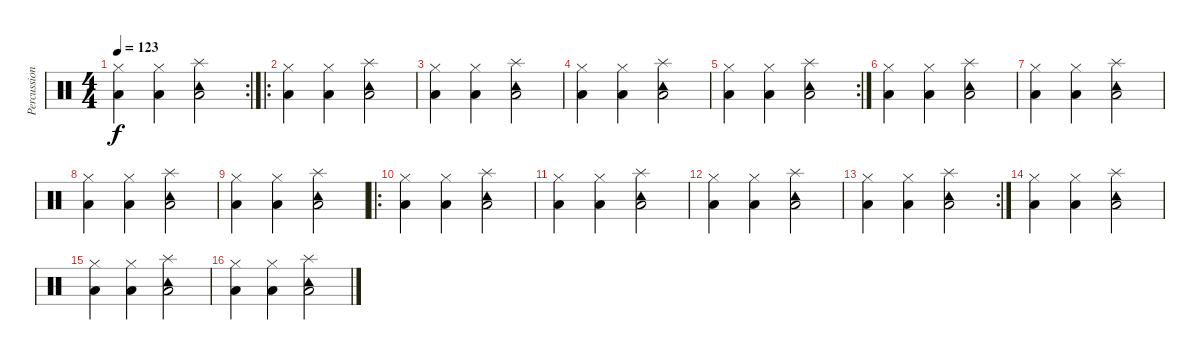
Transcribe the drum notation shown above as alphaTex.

\track ("Percussion" "Percussion") {instrument percussion}
\staff {score}
\articulation defaults
\rc 2
\ts (4 4)
\tempo 123
\clef neutral
\ks c
("Low Floor Tom (hit)" "Hi-Hat (closed)").4{dy f} ("Low Floor Tom (hit)" "Hi-Hat (closed)").4 ("Splash (hit)" "Low Floor Tom (hit)" "Tambourine (hit)").2 |
\ro
("Low Floor Tom (hit)" "Hi-Hat (closed)").4 ("Low Floor Tom (hit)" "Hi-Hat (closed)").4 ("Splash (hit)" "Low Floor Tom (hit)" "Tambourine (hit)").2 |
("Low Floor Tom (hit)" "Hi-Hat (closed)").4 ("Low Floor Tom (hit)" "Hi-Hat (closed)").4 ("Splash (hit)" "Low Floor Tom (hit)" "Tambourine (hit)").2 |
("Low Floor Tom (hit)" "Hi-Hat (closed)").4 ("Low Floor Tom (hit)" "Hi-Hat (closed)").4 ("Splash (hit)" "Low Floor Tom (hit)" "Tambourine (hit)").2 |
\rc 2
("Low Floor Tom (hit)" "Hi-Hat (closed)").4 ("Low Floor Tom (hit)" "Hi-Hat (closed)").4 ("Splash (hit)" "Low Floor Tom (hit)" "Tambourine (hit)").2 |
("Low Floor Tom (hit)" "Hi-Hat (closed)").4 ("Low Floor Tom (hit)" "Hi-Hat (closed)").4 ("Splash (hit)" "Low Floor Tom (hit)" "Tambourine (hit)").2 |
("Low Floor Tom (hit)" "Hi-Hat (closed)").4 ("Low Floor Tom (hit)" "Hi-Hat (closed)").4 ("Splash (hit)" "Low Floor Tom (hit)" "Tambourine (hit)").2 |
("Low Floor Tom (hit)" "Hi-Hat (closed)").4 ("Low Floor Tom (hit)" "Hi-Hat (closed)").4 ("Splash (hit)" "Low Floor Tom (hit)" "Tambourine (hit)").2 |
("Low Floor Tom (hit)" "Hi-Hat (closed)").4 ("Low Floor Tom (hit)" "Hi-Hat (closed)").4 ("Splash (hit)" "Low Floor Tom (hit)" "Tambourine (hit)").2 |
\ro
("Low Floor Tom (hit)" "Hi-Hat (closed)").4 ("Low Floor Tom (hit)" "Hi-Hat (closed)").4 ("Splash (hit)" "Low Floor Tom (hit)" "Tambourine (hit)").2 |
("Low Floor Tom (hit)" "Hi-Hat (closed)").4 ("Low Floor Tom (hit)" "Hi-Hat (closed)").4 ("Splash (hit)" "Low Floor Tom (hit)" "Tambourine (hit)").2 |
("Low Floor Tom (hit)" "Hi-Hat (closed)").4 ("Low Floor Tom (hit)" "Hi-Hat (closed)").4 ("Splash (hit)" "Low Floor Tom (hit)" "Tambourine (hit)").2 |
\rc 2
("Low Floor Tom (hit)" "Hi-Hat (closed)").4 ("Low Floor Tom (hit)" "Hi-Hat (closed)").4 ("Splash (hit)" "Low Floor Tom (hit)" "Tambourine (hit)").2 |
("Low Floor Tom (hit)" "Hi-Hat (closed)").4 ("Low Floor Tom (hit)" "Hi-Hat (closed)").4 ("Splash (hit)" "Low Floor Tom (hit)" "Tambourine (hit)").2 |
("Low Floor Tom (hit)" "Hi-Hat (closed)").4 ("Low Floor Tom (hit)" "Hi-Hat (closed)").4 ("Splash (hit)" "Low Floor Tom (hit)" "Tambourine (hit)").2 |
("Low Floor Tom (hit)" "Hi-Hat (closed)").4 ("Low Floor Tom (hit)" "Hi-Hat (closed)").4 ("Splash (hit)" "Low Floor Tom (hit)" "Tambourine (hit)").2
